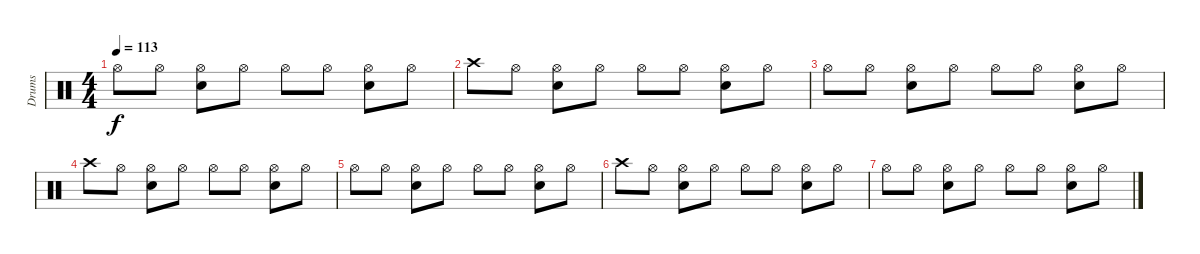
\track ("Drums" "Drums") {instrument percussion}
\staff {score}
\articulation defaults
\ts (4 4)
\tempo 113
\clef neutral
\ks c "Hi-Hat (open)".8{dy f} "Hi-Hat (open)".8
("Hi-Hat (open)" "Snare (hit) 2").8 "Hi-Hat (open)".8 "Hi-Hat (open)".8 "Hi-Hat (open)".8 ("Hi-Hat (open)" "Snare (hit) 2").8 "Hi-Hat (open)".8 |
"Crash high (hit)".8 "Hi-Hat (open)".8 ("Hi-Hat (open)" "Snare (hit) 2").8 "Hi-Hat (open)".8 "Hi-Hat (open)".8 "Hi-Hat (open)".8 ("Hi-Hat (open)" "Snare (hit) 2").8 "Hi-Hat (open)".8 |
"Hi-Hat (open)".8 "Hi-Hat (open)".8 ("Hi-Hat (open)" "Snare (hit) 2").8 "Hi-Hat (open)".8 "Hi-Hat (open)".8 "Hi-Hat (open)".8 ("Hi-Hat (open)" "Snare (hit) 2").8 "Hi-Hat (open)".8 |
"Crash high (hit)".8{volume 6} "Hi-Hat (open)".8 ("Hi-Hat (open)" "Snare (hit) 2").8 "Hi-Hat (open)".8 "Hi-Hat (open)".8 "Hi-Hat (open)".8 ("Hi-Hat (open)" "Snare (hit) 2").8 "Hi-Hat (open)".8 |
"Hi-Hat (open)".8 "Hi-Hat (open)".8 ("Hi-Hat (open)" "Snare (hit) 2").8 "Hi-Hat (open)".8 "Hi-Hat (open)".8 "Hi-Hat (open)".8 ("Hi-Hat (open)" "Snare (hit) 2").8 "Hi-Hat (open)".8 |
"Crash high (hit)".8{volume 1} "Hi-Hat (open)".8 ("Hi-Hat (open)" "Snare (hit) 2").8 "Hi-Hat (open)".8 "Hi-Hat (open)".8 "Hi-Hat (open)".8 ("Hi-Hat (open)" "Snare (hit) 2").8 "Hi-Hat (open)".8 |
"Hi-Hat (open)".8 "Hi-Hat (open)".8 ("Hi-Hat (open)" "Snare (hit) 2").8 "Hi-Hat (open)".8 "Hi-Hat (open)".8 "Hi-Hat (open)".8 ("Hi-Hat (open)" "Snare (hit) 2").8 "Hi-Hat (open)".8
